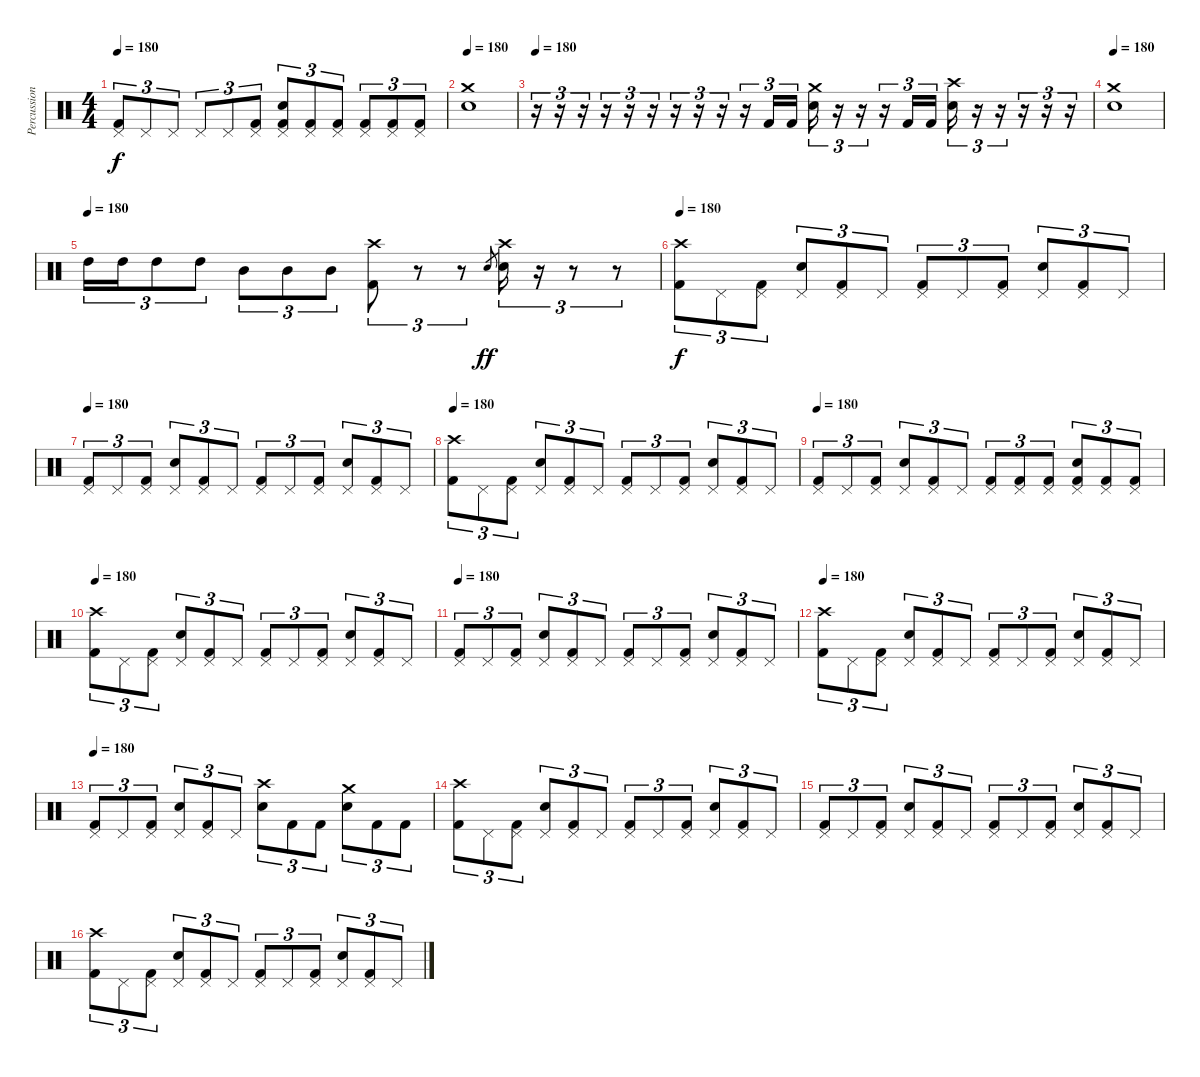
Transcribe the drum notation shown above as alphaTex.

\track ("Percussion" "Percussion") {instrument percussion}
\staff {score}
\articulation defaults
\ts (4 4)
\tempo 180
\clef neutral
\ks c
("Pedal Hi-Hat (hit)" "Kick (hit) 2").8{tu (3 2) dy f} "Pedal Hi-Hat (hit)".8{tu (3 2)} "Pedal Hi-Hat (hit)".8{tu (3 2)} "Pedal Hi-Hat (hit)".8{tu (3 2)} "Pedal Hi-Hat (hit)".8{tu (3 2)} ("Pedal Hi-Hat (hit)" "Kick (hit) 2").8{tu (3 2)} ("Pedal Hi-Hat (hit)" "Snare (hit) 2" "Kick (hit) 2").8{tu (3 2)} ("Pedal Hi-Hat (hit)" "Kick (hit) 2").8{tu (3 2)} ("Pedal Hi-Hat (hit)" "Kick (hit) 2").8{tu (3 2)} ("Pedal Hi-Hat (hit)" "Kick (hit) 2").8{tu (3 2)} ("Pedal Hi-Hat (hit)" "Kick (hit) 2").8{tu (3 2)} ("Pedal Hi-Hat (hit)" "Kick (hit) 2").8{tu (3 2)} |
\tempo 180
("Crash medium (hit)" "Snare (hit) 2").1 |
\tempo 180
r.16{tu (3 2)} r.16{tu (3 2)} r.16{tu (3 2)} r.16{tu (3 2)} r.16{tu (3 2)} r.16{tu (3 2)} r.16{tu (3 2)} r.16{tu (3 2)} r.16{tu (3 2)} r.16{tu (3 2)} "Kick (hit) 2".16{tu (3 2)} "Kick (hit) 2".16{tu (3 2)} ("Crash medium (hit)" "Snare (hit) 2").16{tu (3 2)} r.16{tu (3 2)} r.16{tu (3 2)} r.16{tu (3 2)} "Kick (hit) 2".16{tu (3 2)} "Kick (hit) 2".16{tu (3 2)} ("Crash high (hit)" "Snare (hit) 2").16{tu (3 2)} r.16{tu (3 2)} r.16{tu (3 2)} r.16{tu (3 2)} r.16{tu (3 2)} r.16{tu (3 2)} |
\tempo 180
("Crash medium (hit)" "Snare (hit) 2").1 |
\tempo (180)
"High Tom (hit)".16{tu (3 2)} "High Tom (hit)".16{tu (3 2)} "High Tom (hit)".8{tu (3 2)} "High Tom (hit)".8{tu (3 2)} "Mid Tom (hit)".8{tu (3 2)} "Mid Tom (hit)".8{tu (3 2)} "Mid Tom (hit)".8{tu (3 2)} ("Crash high (hit)" "Kick (hit) 2").8{tu (3 2)} r.8{tu (3 2)} r.8{tu (3 2)} "Snare (hit) 2".8{gr dy ff} ("Crash high (hit)" "Snare (hit) 2").16{tu (3 2)} r.16{tu (3 2)} r.8{tu (3 2)} r.8{tu (3 2)} |
\tempo 180
("Crash high (hit)" "Kick (hit) 2").8{tu (3 2) dy f} "Pedal Hi-Hat (hit)".8{tu (3 2)} ("Pedal Hi-Hat (hit)" "Kick (hit) 2").8{tu (3 2)} ("Pedal Hi-Hat (hit)" "Snare (hit) 2").8{tu (3 2)} ("Pedal Hi-Hat (hit)" "Kick (hit) 2").8{tu (3 2)} "Pedal Hi-Hat (hit)".8{tu (3 2)} ("Pedal Hi-Hat (hit)" "Kick (hit) 2").8{tu (3 2)} "Pedal Hi-Hat (hit)".8{tu (3 2)} ("Pedal Hi-Hat (hit)" "Kick (hit) 2").8{tu (3 2)} ("Pedal Hi-Hat (hit)" "Snare (hit) 2").8{tu (3 2)} ("Pedal Hi-Hat (hit)" "Kick (hit) 2").8{tu (3 2)} "Pedal Hi-Hat (hit)".8{tu (3 2)} |
\tempo 180
("Pedal Hi-Hat (hit)" "Kick (hit) 2").8{tu (3 2)} "Pedal Hi-Hat (hit)".8{tu (3 2)} ("Pedal Hi-Hat (hit)" "Kick (hit) 2").8{tu (3 2)} ("Pedal Hi-Hat (hit)" "Snare (hit) 2").8{tu (3 2)} ("Pedal Hi-Hat (hit)" "Kick (hit) 2").8{tu (3 2)} "Pedal Hi-Hat (hit)".8{tu (3 2)} ("Pedal Hi-Hat (hit)" "Kick (hit) 2").8{tu (3 2)} "Pedal Hi-Hat (hit)".8{tu (3 2)} ("Pedal Hi-Hat (hit)" "Kick (hit) 2").8{tu (3 2)} ("Pedal Hi-Hat (hit)" "Snare (hit) 2").8{tu (3 2)} ("Pedal Hi-Hat (hit)" "Kick (hit) 2").8{tu (3 2)} "Pedal Hi-Hat (hit)".8{tu (3 2)} |
\tempo 180
("Crash high (hit)" "Kick (hit) 2").8{tu (3 2)} "Pedal Hi-Hat (hit)".8{tu (3 2)} ("Pedal Hi-Hat (hit)" "Kick (hit) 2").8{tu (3 2)} ("Pedal Hi-Hat (hit)" "Snare (hit) 2").8{tu (3 2)} ("Pedal Hi-Hat (hit)" "Kick (hit) 2").8{tu (3 2)} "Pedal Hi-Hat (hit)".8{tu (3 2)} ("Pedal Hi-Hat (hit)" "Kick (hit) 2").8{tu (3 2)} "Pedal Hi-Hat (hit)".8{tu (3 2)} ("Pedal Hi-Hat (hit)" "Kick (hit) 2").8{tu (3 2)} ("Pedal Hi-Hat (hit)" "Snare (hit) 2").8{tu (3 2)} ("Pedal Hi-Hat (hit)" "Kick (hit) 2").8{tu (3 2)} "Pedal Hi-Hat (hit)".8{tu (3 2)} |
\tempo 180
("Pedal Hi-Hat (hit)" "Kick (hit) 2").8{tu (3 2)} "Pedal Hi-Hat (hit)".8{tu (3 2)} ("Pedal Hi-Hat (hit)" "Kick (hit) 2").8{tu (3 2)} ("Pedal Hi-Hat (hit)" "Snare (hit) 2").8{tu (3 2)} ("Pedal Hi-Hat (hit)" "Kick (hit) 2").8{tu (3 2)} "Pedal Hi-Hat (hit)".8{tu (3 2)} ("Pedal Hi-Hat (hit)" "Kick (hit) 2").8{tu (3 2)} ("Pedal Hi-Hat (hit)" "Kick (hit) 2").8{tu (3 2)} ("Pedal Hi-Hat (hit)" "Kick (hit) 2").8{tu (3 2)} ("Pedal Hi-Hat (hit)" "Snare (hit) 2" "Kick (hit) 2").8{tu (3 2)} ("Pedal Hi-Hat (hit)" "Kick (hit) 2").8{tu (3 2)} ("Pedal Hi-Hat (hit)" "Kick (hit) 2").8{tu (3 2)} |
\tempo 180
("Crash high (hit)" "Kick (hit) 2").8{tu (3 2)} "Pedal Hi-Hat (hit)".8{tu (3 2)} ("Pedal Hi-Hat (hit)" "Kick (hit) 2").8{tu (3 2)} ("Pedal Hi-Hat (hit)" "Snare (hit) 2").8{tu (3 2)} ("Pedal Hi-Hat (hit)" "Kick (hit) 2").8{tu (3 2)} "Pedal Hi-Hat (hit)".8{tu (3 2)} ("Pedal Hi-Hat (hit)" "Kick (hit) 2").8{tu (3 2)} "Pedal Hi-Hat (hit)".8{tu (3 2)} ("Pedal Hi-Hat (hit)" "Kick (hit) 2").8{tu (3 2)} ("Pedal Hi-Hat (hit)" "Snare (hit) 2").8{tu (3 2)} ("Pedal Hi-Hat (hit)" "Kick (hit) 2").8{tu (3 2)} "Pedal Hi-Hat (hit)".8{tu (3 2)} |
\tempo 180
("Pedal Hi-Hat (hit)" "Kick (hit) 2").8{tu (3 2)} "Pedal Hi-Hat (hit)".8{tu (3 2)} ("Pedal Hi-Hat (hit)" "Kick (hit) 2").8{tu (3 2)} ("Pedal Hi-Hat (hit)" "Snare (hit) 2").8{tu (3 2)} ("Pedal Hi-Hat (hit)" "Kick (hit) 2").8{tu (3 2)} "Pedal Hi-Hat (hit)".8{tu (3 2)} ("Pedal Hi-Hat (hit)" "Kick (hit) 2").8{tu (3 2)} "Pedal Hi-Hat (hit)".8{tu (3 2)} ("Pedal Hi-Hat (hit)" "Kick (hit) 2").8{tu (3 2)} ("Pedal Hi-Hat (hit)" "Snare (hit) 2").8{tu (3 2)} ("Pedal Hi-Hat (hit)" "Kick (hit) 2").8{tu (3 2)} "Pedal Hi-Hat (hit)".8{tu (3 2)} |
\tempo 180
("Crash high (hit)" "Kick (hit) 2").8{tu (3 2)} "Pedal Hi-Hat (hit)".8{tu (3 2)} ("Pedal Hi-Hat (hit)" "Kick (hit) 2").8{tu (3 2)} ("Pedal Hi-Hat (hit)" "Snare (hit) 2").8{tu (3 2)} ("Pedal Hi-Hat (hit)" "Kick (hit) 2").8{tu (3 2)} "Pedal Hi-Hat (hit)".8{tu (3 2)} ("Pedal Hi-Hat (hit)" "Kick (hit) 2").8{tu (3 2)} "Pedal Hi-Hat (hit)".8{tu (3 2)} ("Pedal Hi-Hat (hit)" "Kick (hit) 2").8{tu (3 2)} ("Pedal Hi-Hat (hit)" "Snare (hit) 2").8{tu (3 2)} ("Pedal Hi-Hat (hit)" "Kick (hit) 2").8{tu (3 2)} "Pedal Hi-Hat (hit)".8{tu (3 2)} |
\tempo 180
("Pedal Hi-Hat (hit)" "Kick (hit) 2").8{tu (3 2)} "Pedal Hi-Hat (hit)".8{tu (3 2)} ("Pedal Hi-Hat (hit)" "Kick (hit) 2").8{tu (3 2)} ("Pedal Hi-Hat (hit)" "Snare (hit) 2").8{tu (3 2)} ("Pedal Hi-Hat (hit)" "Kick (hit) 2").8{tu (3 2)} "Pedal Hi-Hat (hit)".8{tu (3 2)} ("Crash high (hit)" "Snare (hit) 2").8{tu (3 2)} "Kick (hit) 2".8{tu (3 2)} "Kick (hit) 2".8{tu (3 2)} ("Crash medium (hit)" "Snare (hit) 2").8{tu (3 2)} "Kick (hit) 2".8{tu (3 2)} "Kick (hit) 2".8{tu (3 2)} |
("Crash high (hit)" "Kick (hit) 2").8{tu (3 2)} "Pedal Hi-Hat (hit)".8{tu (3 2)} ("Pedal Hi-Hat (hit)" "Kick (hit) 2").8{tu (3 2)} ("Pedal Hi-Hat (hit)" "Snare (hit) 2").8{tu (3 2)} ("Pedal Hi-Hat (hit)" "Kick (hit) 2").8{tu (3 2)} "Pedal Hi-Hat (hit)".8{tu (3 2)} ("Pedal Hi-Hat (hit)" "Kick (hit) 2").8{tu (3 2)} "Pedal Hi-Hat (hit)".8{tu (3 2)} ("Pedal Hi-Hat (hit)" "Kick (hit) 2").8{tu (3 2)} ("Pedal Hi-Hat (hit)" "Snare (hit) 2").8{tu (3 2)} ("Pedal Hi-Hat (hit)" "Kick (hit) 2").8{tu (3 2)} "Pedal Hi-Hat (hit)".8{tu (3 2)} |
("Pedal Hi-Hat (hit)" "Kick (hit) 2").8{tu (3 2)} "Pedal Hi-Hat (hit)".8{tu (3 2)} ("Pedal Hi-Hat (hit)" "Kick (hit) 2").8{tu (3 2)} ("Pedal Hi-Hat (hit)" "Snare (hit) 2").8{tu (3 2)} ("Pedal Hi-Hat (hit)" "Kick (hit) 2").8{tu (3 2)} "Pedal Hi-Hat (hit)".8{tu (3 2)} ("Pedal Hi-Hat (hit)" "Kick (hit) 2").8{tu (3 2)} "Pedal Hi-Hat (hit)".8{tu (3 2)} ("Pedal Hi-Hat (hit)" "Kick (hit) 2").8{tu (3 2)} ("Pedal Hi-Hat (hit)" "Snare (hit) 2").8{tu (3 2)} ("Pedal Hi-Hat (hit)" "Kick (hit) 2").8{tu (3 2)} "Pedal Hi-Hat (hit)".8{tu (3 2)} |
("Crash high (hit)" "Kick (hit) 2").8{tu (3 2)} "Pedal Hi-Hat (hit)".8{tu (3 2)} ("Pedal Hi-Hat (hit)" "Kick (hit) 2").8{tu (3 2)} ("Pedal Hi-Hat (hit)" "Snare (hit) 2").8{tu (3 2)} ("Pedal Hi-Hat (hit)" "Kick (hit) 2").8{tu (3 2)} "Pedal Hi-Hat (hit)".8{tu (3 2)} ("Pedal Hi-Hat (hit)" "Kick (hit) 2").8{tu (3 2)} "Pedal Hi-Hat (hit)".8{tu (3 2)} ("Pedal Hi-Hat (hit)" "Kick (hit) 2").8{tu (3 2)} ("Pedal Hi-Hat (hit)" "Snare (hit) 2").8{tu (3 2)} ("Pedal Hi-Hat (hit)" "Kick (hit) 2").8{tu (3 2)} "Pedal Hi-Hat (hit)".8{tu (3 2)}
